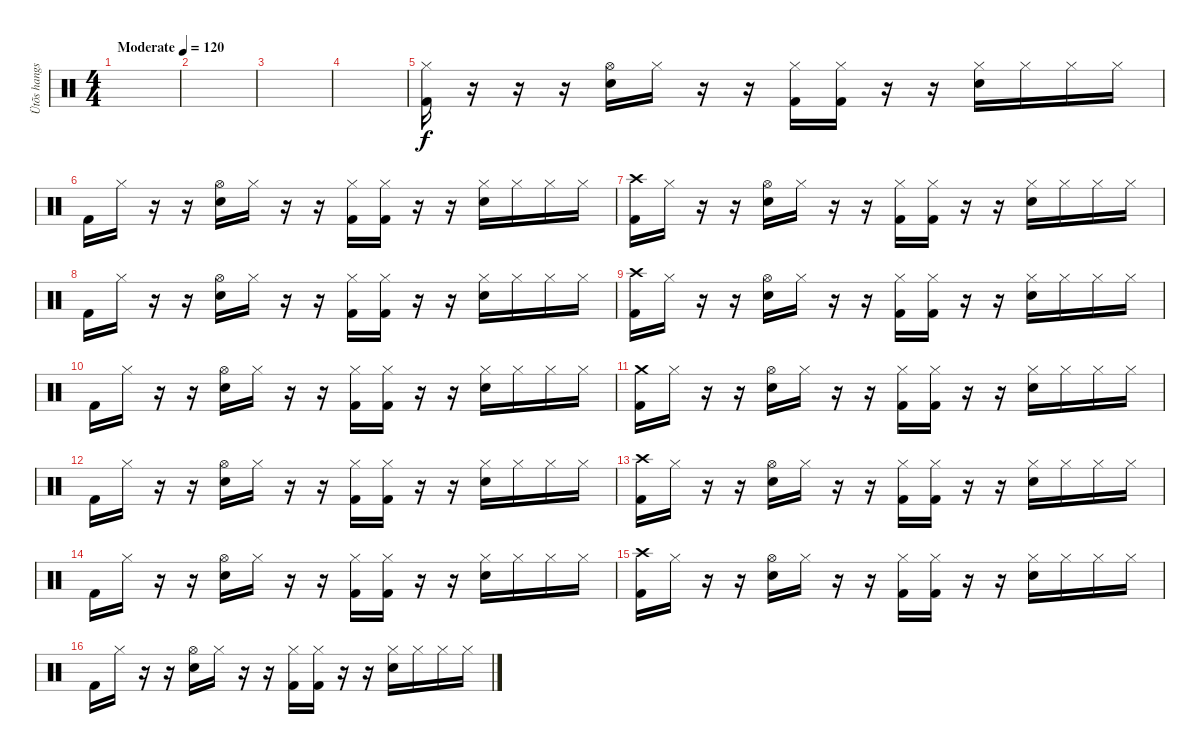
\track ("Ütõs hangszer" "Ütõs hangs") {instrument percussion}
\staff {score}
\articulation defaults
\ts (4 4)
\tempo (120 "Moderate")
\clef neutral
\ks c
|
|
|
|
("Kick (hit) 2" "Hi-Hat (closed)").16 r.16 r.16 r.16 ("Snare (hit) 2" "Hi-Hat (open)").16 "Hi-Hat (closed)".16 r.16 r.16 ("Kick (hit) 2" "Hi-Hat (closed)").16 ("Kick (hit) 2" "Hi-Hat (closed)").16 r.16 r.16 ("Snare (hit) 2" "Hi-Hat (closed)").16 "Hi-Hat (closed)".16 "Hi-Hat (closed)".16 "Hi-Hat (closed)".16 |
"Kick (hit) 2".16 "Hi-Hat (closed)".16 r.16 r.16 ("Snare (hit) 2" "Hi-Hat (open)").16 "Hi-Hat (closed)".16 r.16 r.16 ("Kick (hit) 2" "Hi-Hat (closed)").16 ("Kick (hit) 2" "Hi-Hat (closed)").16 r.16 r.16 ("Snare (hit) 2" "Hi-Hat (closed)").16 "Hi-Hat (closed)".16 "Hi-Hat (closed)".16 "Hi-Hat (closed)".16 |
("Kick (hit) 2" "Crash high (hit)").16 "Hi-Hat (closed)".16 r.16 r.16 ("Snare (hit) 2" "Hi-Hat (open)").16 "Hi-Hat (closed)".16 r.16 r.16 ("Kick (hit) 2" "Hi-Hat (closed)").16 ("Kick (hit) 2" "Hi-Hat (closed)").16 r.16 r.16 ("Snare (hit) 2" "Hi-Hat (closed)").16 "Hi-Hat (closed)".16 "Hi-Hat (closed)".16 "Hi-Hat (closed)".16 |
"Kick (hit) 2".16 "Hi-Hat (closed)".16 r.16 r.16 ("Snare (hit) 2" "Hi-Hat (open)").16 "Hi-Hat (closed)".16 r.16 r.16 ("Kick (hit) 2" "Hi-Hat (closed)").16 ("Kick (hit) 2" "Hi-Hat (closed)").16 r.16 r.16 ("Snare (hit) 2" "Hi-Hat (closed)").16 "Hi-Hat (closed)".16 "Hi-Hat (closed)".16 "Hi-Hat (closed)".16 |
("Kick (hit) 2" "Crash high (hit)").16 "Hi-Hat (closed)".16 r.16 r.16 ("Snare (hit) 2" "Hi-Hat (open)").16 "Hi-Hat (closed)".16 r.16 r.16 ("Kick (hit) 2" "Hi-Hat (closed)").16 ("Kick (hit) 2" "Hi-Hat (closed)").16 r.16 r.16 ("Snare (hit) 2" "Hi-Hat (closed)").16 "Hi-Hat (closed)".16 "Hi-Hat (closed)".16 "Hi-Hat (closed)".16 |
"Kick (hit) 2".16 "Hi-Hat (closed)".16 r.16 r.16 ("Snare (hit) 2" "Hi-Hat (open)").16 "Hi-Hat (closed)".16 r.16 r.16 ("Kick (hit) 2" "Hi-Hat (closed)").16 ("Kick (hit) 2" "Hi-Hat (closed)").16 r.16 r.16 ("Snare (hit) 2" "Hi-Hat (closed)").16 "Hi-Hat (closed)".16 "Hi-Hat (closed)".16 "Hi-Hat (closed)".16 |
("Kick (hit) 2" "Crash medium (hit)").16 "Hi-Hat (closed)".16 r.16 r.16 ("Snare (hit) 2" "Hi-Hat (open)").16 "Hi-Hat (closed)".16 r.16 r.16 ("Kick (hit) 2" "Hi-Hat (closed)").16 ("Kick (hit) 2" "Hi-Hat (closed)").16 r.16 r.16 ("Snare (hit) 2" "Hi-Hat (closed)").16 "Hi-Hat (closed)".16 "Hi-Hat (closed)".16 "Hi-Hat (closed)".16 |
"Kick (hit) 2".16 "Hi-Hat (closed)".16 r.16 r.16 ("Snare (hit) 2" "Hi-Hat (open)").16 "Hi-Hat (closed)".16 r.16 r.16 ("Kick (hit) 2" "Hi-Hat (closed)").16 ("Kick (hit) 2" "Hi-Hat (closed)").16 r.16 r.16 ("Snare (hit) 2" "Hi-Hat (closed)").16 "Hi-Hat (closed)".16 "Hi-Hat (closed)".16 "Hi-Hat (closed)".16 |
("Kick (hit) 2" "Crash high (hit)").16 "Hi-Hat (closed)".16 r.16 r.16 ("Snare (hit) 2" "Hi-Hat (open)").16 "Hi-Hat (closed)".16 r.16 r.16 ("Kick (hit) 2" "Hi-Hat (closed)").16 ("Kick (hit) 2" "Hi-Hat (closed)").16 r.16 r.16 ("Snare (hit) 2" "Hi-Hat (closed)").16 "Hi-Hat (closed)".16 "Hi-Hat (closed)".16 "Hi-Hat (closed)".16 |
"Kick (hit) 2".16 "Hi-Hat (closed)".16 r.16 r.16 ("Snare (hit) 2" "Hi-Hat (open)").16 "Hi-Hat (closed)".16 r.16 r.16 ("Kick (hit) 2" "Hi-Hat (closed)").16 ("Kick (hit) 2" "Hi-Hat (closed)").16 r.16 r.16 ("Snare (hit) 2" "Hi-Hat (closed)").16 "Hi-Hat (closed)".16 "Hi-Hat (closed)".16 "Hi-Hat (closed)".16 |
("Kick (hit) 2" "Crash high (hit)").16 "Hi-Hat (closed)".16 r.16 r.16 ("Snare (hit) 2" "Hi-Hat (open)").16 "Hi-Hat (closed)".16 r.16 r.16 ("Kick (hit) 2" "Hi-Hat (closed)").16 ("Kick (hit) 2" "Hi-Hat (closed)").16 r.16 r.16 ("Snare (hit) 2" "Hi-Hat (closed)").16 "Hi-Hat (closed)".16 "Hi-Hat (closed)".16 "Hi-Hat (closed)".16 |
"Kick (hit) 2".16 "Hi-Hat (closed)".16 r.16 r.16 ("Snare (hit) 2" "Hi-Hat (open)").16 "Hi-Hat (closed)".16 r.16 r.16 ("Kick (hit) 2" "Hi-Hat (closed)").16 ("Kick (hit) 2" "Hi-Hat (closed)").16 r.16 r.16 ("Snare (hit) 2" "Hi-Hat (closed)").16 "Hi-Hat (closed)".16 "Hi-Hat (closed)".16 "Hi-Hat (closed)".16
